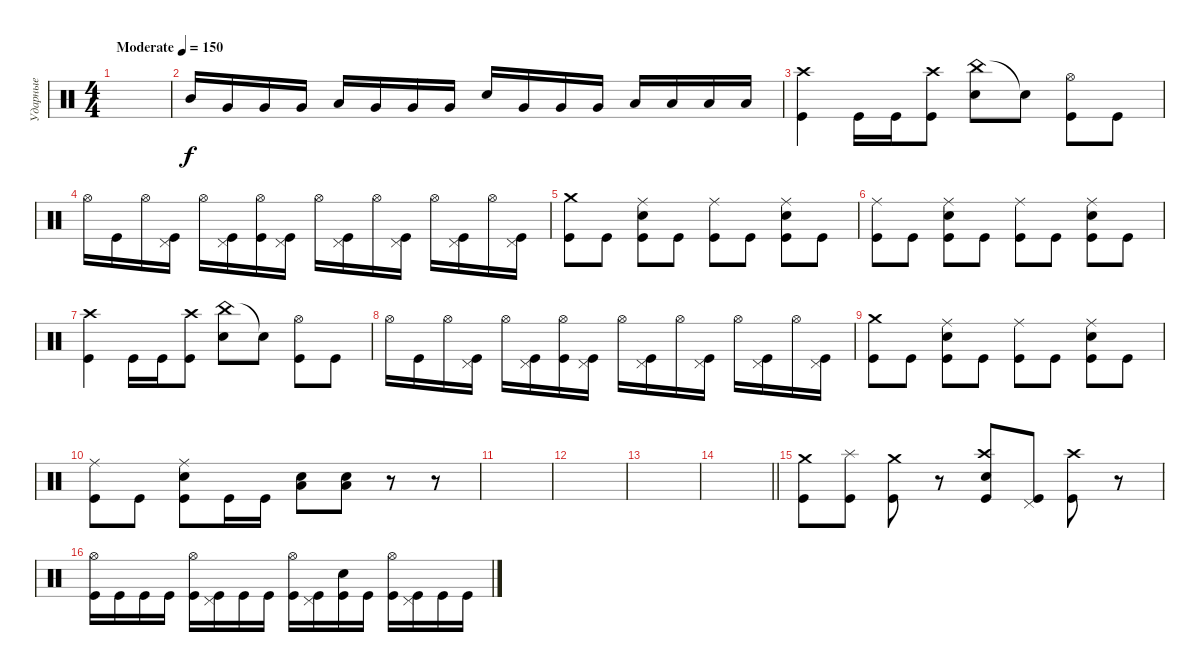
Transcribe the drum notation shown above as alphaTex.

\track ("Ударные" "Ударные") {instrument percussion}
\staff {score}
\articulation defaults
\ts (4 4)
\tempo (150 "Moderate")
\clef neutral
\ks c
|
"Mid Tom (hit)".16 "Very Low Tom (hit)".16 "Very Low Tom (hit)".16 "Very Low Tom (hit)".16 "Low Tom (hit)".16 "Very Low Tom (hit)".16 "Very Low Tom (hit)".16 "Very Low Tom (hit)".16 "Electric Snare (hit)".16 "Very Low Tom (hit)".16 "Very Low Tom (hit)".16 "Very Low Tom (hit)".16 "Low Floor Tom (hit)".16 "Low Floor Tom (hit)".16 "Low Floor Tom (hit)".16 "Low Floor Tom (hit)".16 |
("Crash high (hit)" "Kick (hit)").4 "Kick (hit)".16 "Kick (hit)".16 ("Crash high (hit)" "Kick (hit)").8 ("China (hit)" "Electric Snare (hit)").8 "Snare (hit)"{t}.8 ("Hi-Hat (open)" "Kick (hit)").8 "Kick (hit)".8 |
"Hi-Hat (open)".16 "Kick (hit)".16 "Hi-Hat (open)".16 ("Pedal Hi-Hat (hit)" "Kick (hit)").16 "Hi-Hat (open)".16 ("Pedal Hi-Hat (hit)" "Kick (hit)").16 ("Hi-Hat (open)" "Kick (hit)").16 ("Pedal Hi-Hat (hit)" "Kick (hit)").16 "Hi-Hat (open)".16 ("Pedal Hi-Hat (hit)" "Kick (hit)").16 "Hi-Hat (open)".16 ("Pedal Hi-Hat (hit)" "Kick (hit)").16 "Hi-Hat (open)".16 ("Pedal Hi-Hat (hit)" "Kick (hit)").16 "Hi-Hat (open)".16 ("Pedal Hi-Hat (hit)" "Kick (hit)").16 |
("Crash medium (hit)" "Kick (hit)").8 "Kick (hit)".8 ("Ride (middle)" "Electric Snare (hit)" "Kick (hit)").8 "Kick (hit)".8 ("Ride (middle)" "Kick (hit)").8 "Kick (hit)".8 ("Ride (middle)" "Electric Snare (hit)" "Kick (hit)").8 "Kick (hit)".8 |
("Ride (middle)" "Kick (hit)").8 "Kick (hit)".8 ("Ride (middle)" "Electric Snare (hit)" "Kick (hit)").8 "Kick (hit)".8 ("Ride (middle)" "Kick (hit)").8 "Kick (hit)".8 ("Ride (middle)" "Electric Snare (hit)" "Kick (hit)").8 "Kick (hit)".8 |
("Crash high (hit)" "Kick (hit)").4 "Kick (hit)".16 "Kick (hit)".16 ("Crash high (hit)" "Kick (hit)").8 ("China (hit)" "Electric Snare (hit)").8 "Snare (hit)"{t}.8 ("Hi-Hat (open)" "Kick (hit)").8 "Kick (hit)".8 |
"Hi-Hat (open)".16 "Kick (hit)".16 "Hi-Hat (open)".16 ("Pedal Hi-Hat (hit)" "Kick (hit)").16 "Hi-Hat (open)".16 ("Pedal Hi-Hat (hit)" "Kick (hit)").16 ("Hi-Hat (open)" "Kick (hit)").16 ("Pedal Hi-Hat (hit)" "Kick (hit)").16 "Hi-Hat (open)".16 ("Pedal Hi-Hat (hit)" "Kick (hit)").16 "Hi-Hat (open)".16 ("Pedal Hi-Hat (hit)" "Kick (hit)").16 "Hi-Hat (open)".16 ("Pedal Hi-Hat (hit)" "Kick (hit)").16 "Hi-Hat (open)".16 ("Pedal Hi-Hat (hit)" "Kick (hit)").16 |
("Crash medium (hit)" "Kick (hit)").8 "Kick (hit)".8 ("Ride (middle)" "Electric Snare (hit)" "Kick (hit)").8 "Kick (hit)".8 ("Ride (middle)" "Kick (hit)").8 "Kick (hit)".8 ("Ride (middle)" "Electric Snare (hit)" "Kick (hit)").8 "Kick (hit)".8 |
("Ride (middle)" "Kick (hit)").8 "Kick (hit)".8 ("Ride (middle)" "Electric Snare (hit)" "Kick (hit)").8 "Kick (hit)".16 "Kick (hit)".16 ("Low Floor Tom (hit)" "Electric Snare (hit)").8 ("Low Floor Tom (hit)" "Electric Snare (hit)").8 r.8 r.8 |
|
|
|
\barLineRight lightlight
|
\section ("" " ")
("Crash medium (hit)" "Kick (hit)").8 ("Splash (hit)" "Kick (hit)").8 ("Crash medium (hit)" "Kick (hit)").8 r.8 ("Crash high (hit)" "Electric Snare (hit)" "Kick (hit)").8 ("Pedal Hi-Hat (hit)" "Kick (hit)").8 ("Crash high (hit)" "Kick (hit)").8 r.8 |
("Hi-Hat (open)" "Kick (hit)").16 "Kick (hit)".16 "Kick (hit)".16 "Kick (hit)".16 ("Hi-Hat (open)" "Kick (hit)").16 ("Pedal Hi-Hat (hit)" "Kick (hit)").16 "Kick (hit)".16 "Kick (hit)".16 ("Hi-Hat (open)" "Kick (hit)").16 ("Pedal Hi-Hat (hit)" "Kick (hit)").16 ("Electric Snare (hit)" "Kick (hit)").16 "Kick (hit)".16 ("Hi-Hat (open)" "Kick (hit)").16 ("Pedal Hi-Hat (hit)" "Kick (hit)").16 "Kick (hit)".16 "Kick (hit)".16
